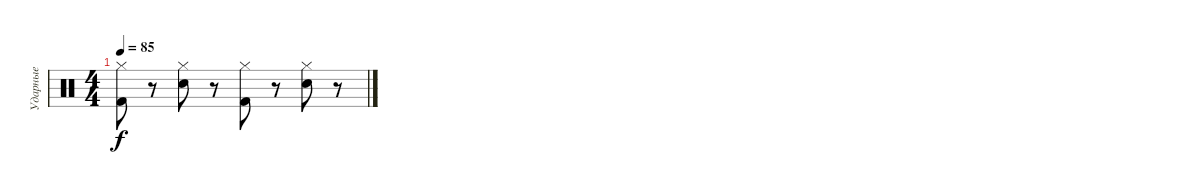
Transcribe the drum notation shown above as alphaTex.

\track ("Ударные" "Ударные") {instrument percussion}
\staff {score}
\articulation defaults
\ts (4 4)
\tempo 85
\clef neutral
\ks c
("Kick (hit) 2" "Hi-Hat (closed)").8{dy f} r.8 ("Electric Snare (hit)" "Hi-Hat (closed)").8 r.8 ("Kick (hit) 2" "Hi-Hat (closed)").8 r.8 ("Electric Snare (hit)" "Hi-Hat (closed)").8 r.8
